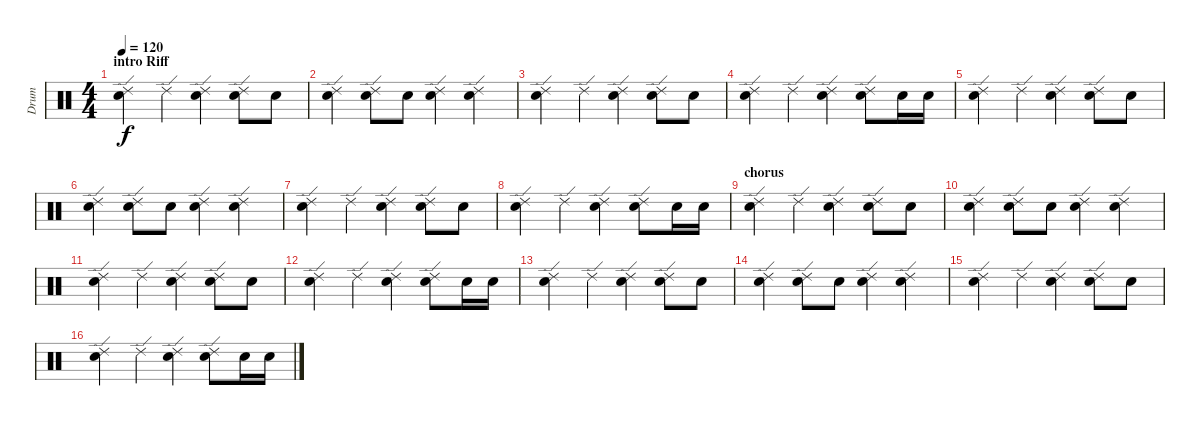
\track ("Drum" "Drum") {instrument percussion}
\staff {score}
\articulation defaults
\ts (4 4)
\section ("" "intro Riff")
\tempo 120
\clef neutral
\ks c
("Electric Snare (hit)" "Ride (edge) 2").4{dy f} "Ride (edge) 2".4 ("Electric Snare (hit)" "Ride (edge) 2").4 ("Electric Snare (hit)" "Ride (edge) 2").8 "Electric Snare (hit)".8 |
("Electric Snare (hit)" "Ride (edge) 2").4 ("Electric Snare (hit)" "Ride (edge) 2").8 "Electric Snare (hit)".8 ("Electric Snare (hit)" "Ride (edge) 2").4 ("Electric Snare (hit)" "Ride (edge) 2").4 |
("Electric Snare (hit)" "Ride (edge) 2").4 "Ride (edge) 2".4 ("Electric Snare (hit)" "Ride (edge) 2").4 ("Electric Snare (hit)" "Ride (edge) 2").8 "Electric Snare (hit)".8 |
("Electric Snare (hit)" "Ride (edge) 2").4 "Ride (edge) 2".4 ("Electric Snare (hit)" "Ride (edge) 2").4 ("Electric Snare (hit)" "Ride (edge) 2").8 "Electric Snare (hit)".16 "Electric Snare (hit)".16 |
("Electric Snare (hit)" "Ride (edge) 2").4 "Ride (edge) 2".4 ("Electric Snare (hit)" "Ride (edge) 2").4 ("Electric Snare (hit)" "Ride (edge) 2").8 "Electric Snare (hit)".8 |
("Electric Snare (hit)" "Ride (edge) 2").4 ("Electric Snare (hit)" "Ride (edge) 2").8 "Electric Snare (hit)".8 ("Electric Snare (hit)" "Ride (edge) 2").4 ("Electric Snare (hit)" "Ride (edge) 2").4 |
("Electric Snare (hit)" "Ride (edge) 2").4 "Ride (edge) 2".4 ("Electric Snare (hit)" "Ride (edge) 2").4 ("Electric Snare (hit)" "Ride (edge) 2").8 "Electric Snare (hit)".8 |
("Electric Snare (hit)" "Ride (edge) 2").4 "Ride (edge) 2".4 ("Electric Snare (hit)" "Ride (edge) 2").4 ("Electric Snare (hit)" "Ride (edge) 2").8 "Electric Snare (hit)".16 "Electric Snare (hit)".16 |
\section ("" "chorus")
("Electric Snare (hit)" "Ride (edge) 2").4 "Ride (edge) 2".4 ("Electric Snare (hit)" "Ride (edge) 2").4 ("Electric Snare (hit)" "Ride (edge) 2").8 "Electric Snare (hit)".8 |
("Electric Snare (hit)" "Ride (edge) 2").4 ("Electric Snare (hit)" "Ride (edge) 2").8 "Electric Snare (hit)".8 ("Electric Snare (hit)" "Ride (edge) 2").4 ("Electric Snare (hit)" "Ride (edge) 2").4 |
("Electric Snare (hit)" "Ride (edge) 2").4 "Ride (edge) 2".4 ("Electric Snare (hit)" "Ride (edge) 2").4 ("Electric Snare (hit)" "Ride (edge) 2").8 "Electric Snare (hit)".8 |
("Electric Snare (hit)" "Ride (edge) 2").4 "Ride (edge) 2".4 ("Electric Snare (hit)" "Ride (edge) 2").4 ("Electric Snare (hit)" "Ride (edge) 2").8 "Electric Snare (hit)".16 "Electric Snare (hit)".16 |
("Electric Snare (hit)" "Ride (edge) 2").4 "Ride (edge) 2".4 ("Electric Snare (hit)" "Ride (edge) 2").4 ("Electric Snare (hit)" "Ride (edge) 2").8 "Electric Snare (hit)".8 |
("Electric Snare (hit)" "Ride (edge) 2").4 ("Electric Snare (hit)" "Ride (edge) 2").8 "Electric Snare (hit)".8 ("Electric Snare (hit)" "Ride (edge) 2").4 ("Electric Snare (hit)" "Ride (edge) 2").4 |
("Electric Snare (hit)" "Ride (edge) 2").4 "Ride (edge) 2".4 ("Electric Snare (hit)" "Ride (edge) 2").4 ("Electric Snare (hit)" "Ride (edge) 2").8 "Electric Snare (hit)".8 |
("Electric Snare (hit)" "Ride (edge) 2").4 "Ride (edge) 2".4 ("Electric Snare (hit)" "Ride (edge) 2").4 ("Electric Snare (hit)" "Ride (edge) 2").8 "Electric Snare (hit)".16 "Electric Snare (hit)".16
